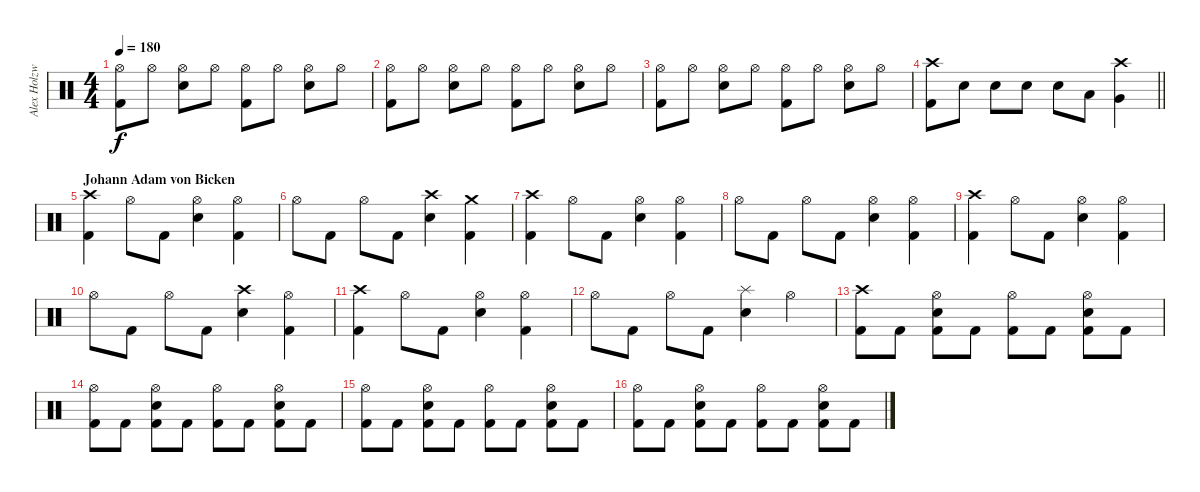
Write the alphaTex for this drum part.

\track ("Alex Holzwarth" "Alex Holzw") {instrument percussion}
\staff {score}
\articulation defaults
\ts (4 4)
\tempo 180
\clef neutral
\ks c
("Hi-Hat (open)" "Kick (hit) 2").8{dy f} "Hi-Hat (open)".8 ("Hi-Hat (open)" "Electric Snare (hit)").8 "Hi-Hat (open)".8 ("Hi-Hat (open)" "Kick (hit) 2").8 "Hi-Hat (open)".8 ("Hi-Hat (open)" "Electric Snare (hit)").8 "Hi-Hat (open)".8 |
("Hi-Hat (open)" "Kick (hit) 2").8 "Hi-Hat (open)".8 ("Hi-Hat (open)" "Electric Snare (hit)").8 "Hi-Hat (open)".8 ("Hi-Hat (open)" "Kick (hit) 2").8 "Hi-Hat (open)".8 ("Hi-Hat (open)" "Electric Snare (hit)").8 "Hi-Hat (open)".8 |
("Hi-Hat (open)" "Kick (hit) 2").8 "Hi-Hat (open)".8 ("Hi-Hat (open)" "Electric Snare (hit)").8 "Hi-Hat (open)".8 ("Hi-Hat (open)" "Kick (hit) 2").8 "Hi-Hat (open)".8 ("Hi-Hat (open)" "Electric Snare (hit)").8 "Hi-Hat (open)".8 |
\barLineRight lightlight
("Crash high (hit)" "Kick (hit) 2").8 "Electric Snare (hit)".8 "Electric Snare (hit)".8 "Electric Snare (hit)".8 "Electric Snare (hit)".8 "Low Tom (hit)".8 ("Crash high (hit)" "Very Low Tom (hit)").4 |
\section ("" "Johann Adam von Bicken")
("Crash high (hit)" "Kick (hit) 2").4 "Hi-Hat (open)".8 "Kick (hit) 2".8 ("Hi-Hat (open)" "Electric Snare (hit)").4 ("Hi-Hat (open)" "Kick (hit) 2").4 |
"Hi-Hat (open)".8 "Kick (hit) 2".8 "Hi-Hat (open)".8 "Kick (hit) 2".8 ("Crash high (hit)" "Electric Snare (hit)").4 ("Crash medium (hit)" "Kick (hit) 2").4 |
("Crash high (hit)" "Kick (hit) 2").4 "Hi-Hat (open)".8 "Kick (hit) 2".8 ("Hi-Hat (open)" "Electric Snare (hit)").4 ("Hi-Hat (open)" "Kick (hit) 2").4 |
"Hi-Hat (open)".8 "Kick (hit) 2".8 "Hi-Hat (open)".8 "Kick (hit) 2".8 ("Hi-Hat (open)" "Electric Snare (hit)").4 ("Hi-Hat (open)" "Kick (hit) 2").4 |
("Crash high (hit)" "Kick (hit) 2").4 "Hi-Hat (open)".8 "Kick (hit) 2".8 ("Hi-Hat (open)" "Electric Snare (hit)").4 ("Hi-Hat (open)" "Kick (hit) 2").4 |
"Hi-Hat (open)".8 "Kick (hit) 2".8 "Hi-Hat (open)".8 "Kick (hit) 2".8 ("Crash high (hit)" "Electric Snare (hit)").4 ("Hi-Hat (open)" "Kick (hit) 2").4 |
("Crash high (hit)" "Kick (hit) 2").4 "Hi-Hat (open)".8 "Kick (hit) 2".8 ("Hi-Hat (open)" "Electric Snare (hit)").4 ("Hi-Hat (open)" "Kick (hit) 2").4 |
"Hi-Hat (open)".8 "Kick (hit) 2".8 "Hi-Hat (open)".8 "Kick (hit) 2".8 ("Splash (hit)" "Electric Snare (hit)").4 "Hi-Hat (open)".4 |
("Crash high (hit)" "Kick (hit) 2").8 "Kick (hit) 2".8 ("Hi-Hat (open)" "Electric Snare (hit)" "Kick (hit) 2").8 "Kick (hit) 2".8 ("Hi-Hat (open)" "Kick (hit) 2").8 "Kick (hit) 2".8 ("Hi-Hat (open)" "Electric Snare (hit)" "Kick (hit) 2").8 "Kick (hit) 2".8 |
("Hi-Hat (open)" "Kick (hit) 2").8 "Kick (hit) 2".8 ("Hi-Hat (open)" "Electric Snare (hit)" "Kick (hit) 2").8 "Kick (hit) 2".8 ("Hi-Hat (open)" "Kick (hit) 2").8 "Kick (hit) 2".8 ("Hi-Hat (open)" "Electric Snare (hit)" "Kick (hit) 2").8 "Kick (hit) 2".8 |
("Hi-Hat (open)" "Kick (hit) 2").8 "Kick (hit) 2".8 ("Hi-Hat (open)" "Electric Snare (hit)" "Kick (hit) 2").8 "Kick (hit) 2".8 ("Hi-Hat (open)" "Kick (hit) 2").8 "Kick (hit) 2".8 ("Hi-Hat (open)" "Electric Snare (hit)" "Kick (hit) 2").8 "Kick (hit) 2".8 |
("Hi-Hat (open)" "Kick (hit) 2").8 "Kick (hit) 2".8 ("Hi-Hat (open)" "Electric Snare (hit)" "Kick (hit) 2").8 "Kick (hit) 2".8 ("Hi-Hat (open)" "Kick (hit) 2").8 "Kick (hit) 2".8 ("Hi-Hat (open)" "Electric Snare (hit)" "Kick (hit) 2").8 "Kick (hit) 2".8
